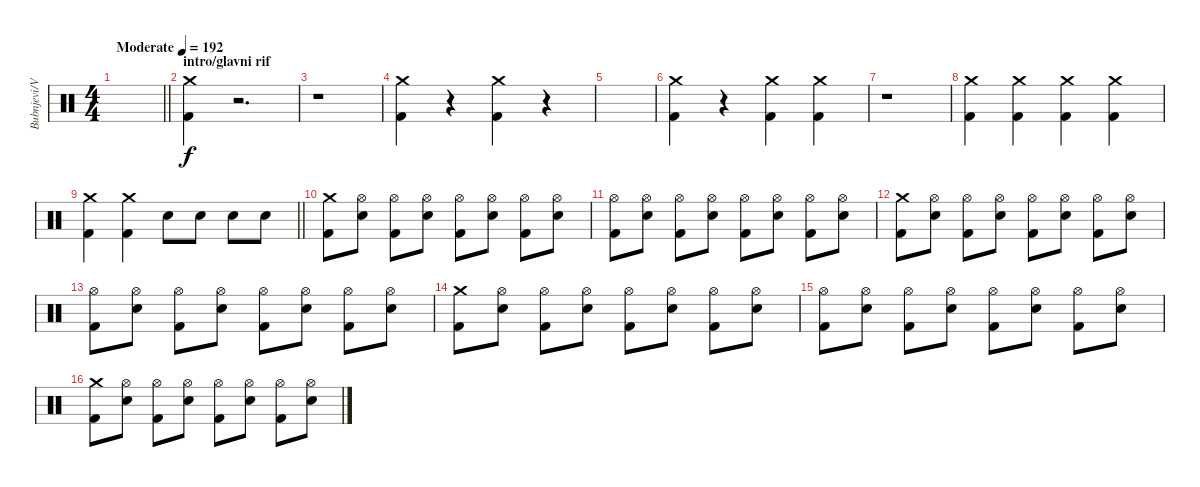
\track ("Bubnjevi/Vestac Tlacitelj" "Bubnjevi/V") {instrument percussion}
\staff {score}
\articulation defaults
\ts (4 4)
\tempo (192 "Moderate")
\clef neutral
\barLineRight lightlight
\ks c
|
\section ("" "intro/glavni rif")
("Crash medium (hit)" "Kick (hit) 2").4 r.2{d volume 0} |
r.1 |
("Crash medium (hit)" "Kick (hit) 2").4{volume 13} r.4{volume 0} ("Crash medium (hit)" "Kick (hit) 2").4{volume 13} r.4{volume 0} |
|
("Crash medium (hit)" "Kick (hit) 2").4{volume 13} r.4{volume 0} ("Crash medium (hit)" "Kick (hit) 2").4{volume 13} ("Crash medium (hit)" "Kick (hit) 2").4 |
r.1{volume 0} |
("Crash medium (hit)" "Kick (hit) 2").4{volume 13} ("Crash medium (hit)" "Kick (hit) 2").4 ("Crash medium (hit)" "Kick (hit) 2").4 ("Crash medium (hit)" "Kick (hit) 2").4 |
\barLineRight lightlight
("Crash medium (hit)" "Kick (hit) 2").4 ("Crash medium (hit)" "Kick (hit) 2").4 "Electric Snare (hit)".8 "Electric Snare (hit)".8 "Electric Snare (hit)".8 "Electric Snare (hit)".8 |
("Crash medium (hit)" "Kick (hit) 2").8 ("Hi-Hat (open)" "Electric Snare (hit)").8 ("Hi-Hat (open)" "Kick (hit) 2").8 ("Hi-Hat (open)" "Electric Snare (hit)").8 ("Hi-Hat (open)" "Kick (hit) 2").8 ("Hi-Hat (open)" "Electric Snare (hit)").8 ("Hi-Hat (open)" "Kick (hit) 2").8 ("Hi-Hat (open)" "Electric Snare (hit)").8 |
("Hi-Hat (open)" "Kick (hit) 2").8 ("Hi-Hat (open)" "Electric Snare (hit)").8 ("Hi-Hat (open)" "Kick (hit) 2").8 ("Hi-Hat (open)" "Electric Snare (hit)").8 ("Hi-Hat (open)" "Kick (hit) 2").8 ("Hi-Hat (open)" "Electric Snare (hit)").8 ("Hi-Hat (open)" "Kick (hit) 2").8 ("Hi-Hat (open)" "Electric Snare (hit)").8 |
("Crash medium (hit)" "Kick (hit) 2").8 ("Hi-Hat (open)" "Electric Snare (hit)").8 ("Hi-Hat (open)" "Kick (hit) 2").8 ("Hi-Hat (open)" "Electric Snare (hit)").8 ("Hi-Hat (open)" "Kick (hit) 2").8 ("Hi-Hat (open)" "Electric Snare (hit)").8 ("Hi-Hat (open)" "Kick (hit) 2").8 ("Hi-Hat (open)" "Electric Snare (hit)").8 |
("Hi-Hat (open)" "Kick (hit) 2").8 ("Hi-Hat (open)" "Electric Snare (hit)").8 ("Hi-Hat (open)" "Kick (hit) 2").8 ("Hi-Hat (open)" "Electric Snare (hit)").8 ("Hi-Hat (open)" "Kick (hit) 2").8 ("Hi-Hat (open)" "Electric Snare (hit)").8 ("Hi-Hat (open)" "Kick (hit) 2").8 ("Hi-Hat (open)" "Electric Snare (hit)").8 |
("Crash medium (hit)" "Kick (hit) 2").8 ("Hi-Hat (open)" "Electric Snare (hit)").8 ("Hi-Hat (open)" "Kick (hit) 2").8 ("Hi-Hat (open)" "Electric Snare (hit)").8 ("Hi-Hat (open)" "Kick (hit) 2").8 ("Hi-Hat (open)" "Electric Snare (hit)").8 ("Hi-Hat (open)" "Kick (hit) 2").8 ("Hi-Hat (open)" "Electric Snare (hit)").8 |
("Hi-Hat (open)" "Kick (hit) 2").8 ("Hi-Hat (open)" "Electric Snare (hit)").8 ("Hi-Hat (open)" "Kick (hit) 2").8 ("Hi-Hat (open)" "Electric Snare (hit)").8 ("Hi-Hat (open)" "Kick (hit) 2").8 ("Hi-Hat (open)" "Electric Snare (hit)").8 ("Hi-Hat (open)" "Kick (hit) 2").8 ("Hi-Hat (open)" "Electric Snare (hit)").8 |
("Crash medium (hit)" "Kick (hit) 2").8 ("Hi-Hat (open)" "Electric Snare (hit)").8 ("Hi-Hat (open)" "Kick (hit) 2").8 ("Hi-Hat (open)" "Electric Snare (hit)").8 ("Hi-Hat (open)" "Kick (hit) 2").8 ("Hi-Hat (open)" "Electric Snare (hit)").8 ("Hi-Hat (open)" "Kick (hit) 2").8 ("Hi-Hat (open)" "Electric Snare (hit)").8
